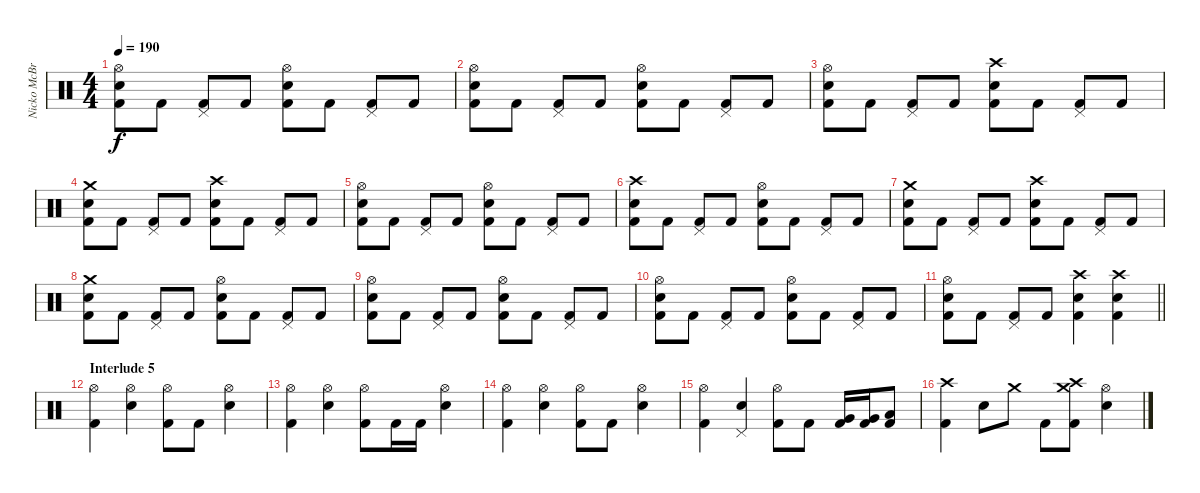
\track ("Nicko McBrain" "Nicko McBr") {instrument percussion}
\staff {score}
\articulation defaults
\ts (4 4)
\tempo 190
\clef neutral
\ks c
("Hi-Hat (open)" "Electric Snare (hit)" "Kick (hit) 2").8{dy f} "Kick (hit) 2".8 ("Pedal Hi-Hat (hit)" "Kick (hit) 2").8 "Kick (hit) 2".8 ("Hi-Hat (open)" "Electric Snare (hit)" "Kick (hit) 2").8 "Kick (hit) 2".8 ("Pedal Hi-Hat (hit)" "Kick (hit) 2").8 "Kick (hit) 2".8 |
("Hi-Hat (open)" "Electric Snare (hit)" "Kick (hit) 2").8 "Kick (hit) 2".8 ("Pedal Hi-Hat (hit)" "Kick (hit) 2").8 "Kick (hit) 2".8 ("Hi-Hat (open)" "Electric Snare (hit)" "Kick (hit) 2").8 "Kick (hit) 2".8 ("Pedal Hi-Hat (hit)" "Kick (hit) 2").8 "Kick (hit) 2".8 |
("Hi-Hat (open)" "Electric Snare (hit)" "Kick (hit) 2").8 "Kick (hit) 2".8 ("Pedal Hi-Hat (hit)" "Kick (hit) 2").8 "Kick (hit) 2".8 ("Crash high (hit)" "Electric Snare (hit)" "Kick (hit) 2").8 "Kick (hit) 2".8 ("Pedal Hi-Hat (hit)" "Kick (hit) 2").8 "Kick (hit) 2".8 |
("Crash medium (hit)" "Electric Snare (hit)" "Kick (hit) 2").8 "Kick (hit) 2".8 ("Pedal Hi-Hat (hit)" "Kick (hit) 2").8 "Kick (hit) 2".8 ("Crash high (hit)" "Electric Snare (hit)" "Kick (hit) 2").8 "Kick (hit) 2".8 ("Pedal Hi-Hat (hit)" "Kick (hit) 2").8 "Kick (hit) 2".8 |
("Hi-Hat (open)" "Electric Snare (hit)" "Kick (hit) 2").8 "Kick (hit) 2".8 ("Pedal Hi-Hat (hit)" "Kick (hit) 2").8 "Kick (hit) 2".8 ("Hi-Hat (open)" "Electric Snare (hit)" "Kick (hit) 2").8 "Kick (hit) 2".8 ("Pedal Hi-Hat (hit)" "Kick (hit) 2").8 "Kick (hit) 2".8 |
("Crash high (hit)" "Electric Snare (hit)" "Kick (hit) 2").8 "Kick (hit) 2".8 ("Pedal Hi-Hat (hit)" "Kick (hit) 2").8 "Kick (hit) 2".8 ("Hi-Hat (open)" "Electric Snare (hit)" "Kick (hit) 2").8 "Kick (hit) 2".8 ("Pedal Hi-Hat (hit)" "Kick (hit) 2").8 "Kick (hit) 2".8 |
("Crash medium (hit)" "Electric Snare (hit)" "Kick (hit) 2").8 "Kick (hit) 2".8 ("Pedal Hi-Hat (hit)" "Kick (hit) 2").8 "Kick (hit) 2".8 ("Crash high (hit)" "Electric Snare (hit)" "Kick (hit) 2").8 "Kick (hit) 2".8 ("Pedal Hi-Hat (hit)" "Kick (hit) 2").8 "Kick (hit) 2".8 |
("Crash medium (hit)" "Electric Snare (hit)" "Kick (hit) 2").8 "Kick (hit) 2".8 ("Pedal Hi-Hat (hit)" "Kick (hit) 2").8 "Kick (hit) 2".8 ("Hi-Hat (open)" "Electric Snare (hit)" "Kick (hit) 2").8 "Kick (hit) 2".8 ("Pedal Hi-Hat (hit)" "Kick (hit) 2").8 "Kick (hit) 2".8 |
("Hi-Hat (open)" "Electric Snare (hit)" "Kick (hit) 2").8 "Kick (hit) 2".8 ("Pedal Hi-Hat (hit)" "Kick (hit) 2").8 "Kick (hit) 2".8 ("Hi-Hat (open)" "Electric Snare (hit)" "Kick (hit) 2").8 "Kick (hit) 2".8 ("Pedal Hi-Hat (hit)" "Kick (hit) 2").8 "Kick (hit) 2".8 |
("Hi-Hat (open)" "Electric Snare (hit)" "Kick (hit) 2").8 "Kick (hit) 2".8 ("Pedal Hi-Hat (hit)" "Kick (hit) 2").8 "Kick (hit) 2".8 ("Hi-Hat (open)" "Electric Snare (hit)" "Kick (hit) 2").8 "Kick (hit) 2".8 ("Pedal Hi-Hat (hit)" "Kick (hit) 2").8 "Kick (hit) 2".8 |
\barLineRight lightlight
("Hi-Hat (open)" "Electric Snare (hit)" "Kick (hit) 2").8 "Kick (hit) 2".8 ("Pedal Hi-Hat (hit)" "Kick (hit) 2").8 "Kick (hit) 2".8 ("Crash high (hit)" "Electric Snare (hit)" "Kick (hit) 2").4 ("Crash high (hit)" "Electric Snare (hit)" "Kick (hit) 2").4 |
\section ("" "Interlude 5")
("Hi-Hat (open)" "Kick (hit) 2").4 ("Hi-Hat (open)" "Electric Snare (hit)").4 ("Hi-Hat (open)" "Kick (hit) 2").8 "Kick (hit) 2".8 ("Hi-Hat (open)" "Electric Snare (hit)").4 |
("Hi-Hat (open)" "Kick (hit) 2").4 ("Hi-Hat (open)" "Electric Snare (hit)").4 ("Hi-Hat (open)" "Kick (hit) 2").8 "Kick (hit) 2".16 "Kick (hit) 2".16 ("Hi-Hat (open)" "Electric Snare (hit)").4 |
("Hi-Hat (open)" "Kick (hit) 2").4 ("Hi-Hat (open)" "Electric Snare (hit)").4 ("Hi-Hat (open)" "Kick (hit) 2").8 "Kick (hit) 2".8 ("Hi-Hat (open)" "Electric Snare (hit)").4 |
("Hi-Hat (open)" "Kick (hit) 2").4 ("Pedal Hi-Hat (hit)" "Electric Snare (hit)").4 ("Hi-Hat (open)" "Kick (hit) 2").8 "Kick (hit) 2".8 ("Very Low Tom (hit)" "Kick (hit) 2").16 ("Very Low Tom (hit)" "Kick (hit) 2").16 ("Low Floor Tom (hit)" "Kick (hit) 2").8 |
("Crash high (hit)" "Kick (hit) 2").4 "Electric Snare (hit)".8 "Crash medium (hit)".8 "Kick (hit) 2".8 ("Crash medium (hit)" "Crash high (hit)" "Kick (hit) 2").8 ("Hi-Hat (open)" "Electric Snare (hit)").4
